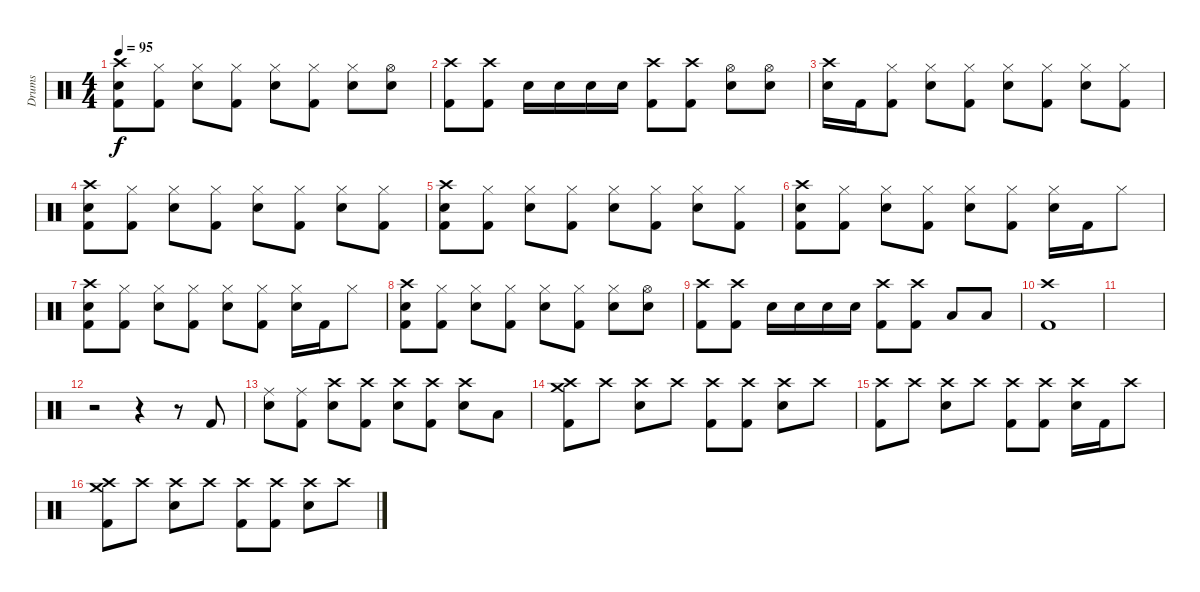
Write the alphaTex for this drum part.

\track ("Drums" "Drums") {instrument percussion}
\staff {score}
\articulation defaults
\ts (4 4)
\tempo 95
\clef neutral
\ks c
("Crash high (hit)" "Snare (hit) 2" "Kick (hit) 2").8{dy f} ("Kick (hit) 2" "Hi-Hat (closed)").8 ("Snare (hit) 2" "Hi-Hat (closed)").8 ("Kick (hit) 2" "Hi-Hat (closed)").8 ("Snare (hit) 2" "Hi-Hat (closed)").8 ("Kick (hit) 2" "Hi-Hat (closed)").8 ("Snare (hit) 2" "Hi-Hat (closed)").8 ("Snare (hit) 2" "Hi-Hat (open)").8 |
("Kick (hit) 2" "Crash high (hit)").8 ("Kick (hit) 2" "Crash high (hit)").8 "Snare (hit) 2".16 "Snare (hit) 2".16 "Snare (hit) 2".16 "Snare (hit) 2".16 ("Crash high (hit)" "Kick (hit) 2").8 ("Kick (hit) 2" "Crash high (hit)").8 ("Hi-Hat (open)" "Snare (hit) 2").8 ("Snare (hit) 2" "Hi-Hat (open)").8 |
("Crash high (hit)" "Snare (hit) 2").16 "Kick (hit) 2".16 ("Kick (hit) 2" "Hi-Hat (closed)").8 ("Snare (hit) 2" "Hi-Hat (closed)").8 ("Hi-Hat (closed)" "Kick (hit) 2").8 ("Hi-Hat (closed)" "Snare (hit) 2").8 ("Hi-Hat (closed)" "Kick (hit) 2").8 ("Hi-Hat (closed)" "Snare (hit) 2").8 ("Hi-Hat (closed)" "Kick (hit) 2").8 |
("Crash high (hit)" "Snare (hit) 2" "Kick (hit) 2").8 ("Kick (hit) 2" "Hi-Hat (closed)").8 ("Snare (hit) 2" "Hi-Hat (closed)").8 ("Kick (hit) 2" "Hi-Hat (closed)").8 ("Snare (hit) 2" "Hi-Hat (closed)").8 ("Kick (hit) 2" "Hi-Hat (closed)").8 ("Snare (hit) 2" "Hi-Hat (closed)").8 ("Kick (hit) 2" "Hi-Hat (closed)").8 |
("Crash high (hit)" "Snare (hit) 2" "Kick (hit) 2").8 ("Kick (hit) 2" "Hi-Hat (closed)").8 ("Snare (hit) 2" "Hi-Hat (closed)").8 ("Kick (hit) 2" "Hi-Hat (closed)").8 ("Snare (hit) 2" "Hi-Hat (closed)").8 ("Kick (hit) 2" "Hi-Hat (closed)").8 ("Snare (hit) 2" "Hi-Hat (closed)").8 ("Kick (hit) 2" "Hi-Hat (closed)").8 |
("Crash high (hit)" "Snare (hit) 2" "Kick (hit) 2").8 ("Kick (hit) 2" "Hi-Hat (closed)").8 ("Snare (hit) 2" "Hi-Hat (closed)").8 ("Kick (hit) 2" "Hi-Hat (closed)").8 ("Snare (hit) 2" "Hi-Hat (closed)").8 ("Kick (hit) 2" "Hi-Hat (closed)").8 ("Snare (hit) 2" "Hi-Hat (closed)").16 "Kick (hit) 2".16 "Hi-Hat (closed)".8 |
("Crash high (hit)" "Snare (hit) 2" "Kick (hit) 2").8 ("Kick (hit) 2" "Hi-Hat (closed)").8 ("Snare (hit) 2" "Hi-Hat (closed)").8 ("Kick (hit) 2" "Hi-Hat (closed)").8 ("Snare (hit) 2" "Hi-Hat (closed)").8 ("Kick (hit) 2" "Hi-Hat (closed)").8 ("Snare (hit) 2" "Hi-Hat (closed)").16 "Kick (hit) 2".16 "Hi-Hat (closed)".8 |
("Crash high (hit)" "Snare (hit) 2" "Kick (hit) 2").8 ("Kick (hit) 2" "Hi-Hat (closed)").8 ("Snare (hit) 2" "Hi-Hat (closed)").8 ("Kick (hit) 2" "Hi-Hat (closed)").8 ("Snare (hit) 2" "Hi-Hat (closed)").8 ("Kick (hit) 2" "Hi-Hat (closed)").8 ("Snare (hit) 2" "Hi-Hat (closed)").8 ("Snare (hit) 2" "Hi-Hat (open)").8 |
("Crash high (hit)" "Kick (hit) 2").8 ("Crash high (hit)" "Kick (hit) 2").8 "Snare (hit) 2".16 "Snare (hit) 2".16 "Snare (hit) 2".16 "Snare (hit) 2".16 ("Crash high (hit)" "Kick (hit) 2").8 ("Crash high (hit)" "Kick (hit) 2").8 "Low Tom (hit)".8 "Low Floor Tom (hit)".8 |
("Crash high (hit)" "Kick (hit) 2").1 |
|
r.2 r.4 r.8 "Kick (hit) 2".8 |
("Snare (hit) 2" "Ride (middle)").8 ("Ride (middle)" "Kick (hit) 2").8 ("Crash high (hit)" "Snare (hit) 2").8 ("Kick (hit) 2" "Crash high (hit)").8 ("Snare (hit) 2" "Crash high (hit)").8 ("Crash high (hit)" "Kick (hit) 2").8 ("Snare (hit) 2" "Crash high (hit)").8 "Low Floor Tom (hit)".8 |
("Crash medium (hit)" "Crash high (hit)" "Kick (hit) 2").8 "Crash high (hit)".8 ("Crash high (hit)" "Snare (hit) 2").8 "Crash high (hit)".8 ("Crash high (hit)" "Kick (hit) 2").8 ("Crash high (hit)" "Kick (hit) 2").8 ("Crash high (hit)" "Snare (hit) 2").8 "Crash high (hit)".8 |
("Kick (hit) 2" "Crash high (hit)").8 "Crash high (hit)".8 ("Snare (hit) 2" "Crash high (hit)").8 "Crash high (hit)".8 ("Kick (hit) 2" "Crash high (hit)").8 ("Kick (hit) 2" "Crash high (hit)").8 ("Snare (hit) 2" "Crash high (hit)").16 "Kick (hit) 2".16 "Crash high (hit)".8 |
("Crash medium (hit)" "Crash high (hit)" "Kick (hit) 2").8 "Crash high (hit)".8 ("Crash high (hit)" "Snare (hit) 2").8 "Crash high (hit)".8 ("Crash high (hit)" "Kick (hit) 2").8 ("Crash high (hit)" "Kick (hit) 2").8 ("Crash high (hit)" "Snare (hit) 2").8 "Crash high (hit)".8
